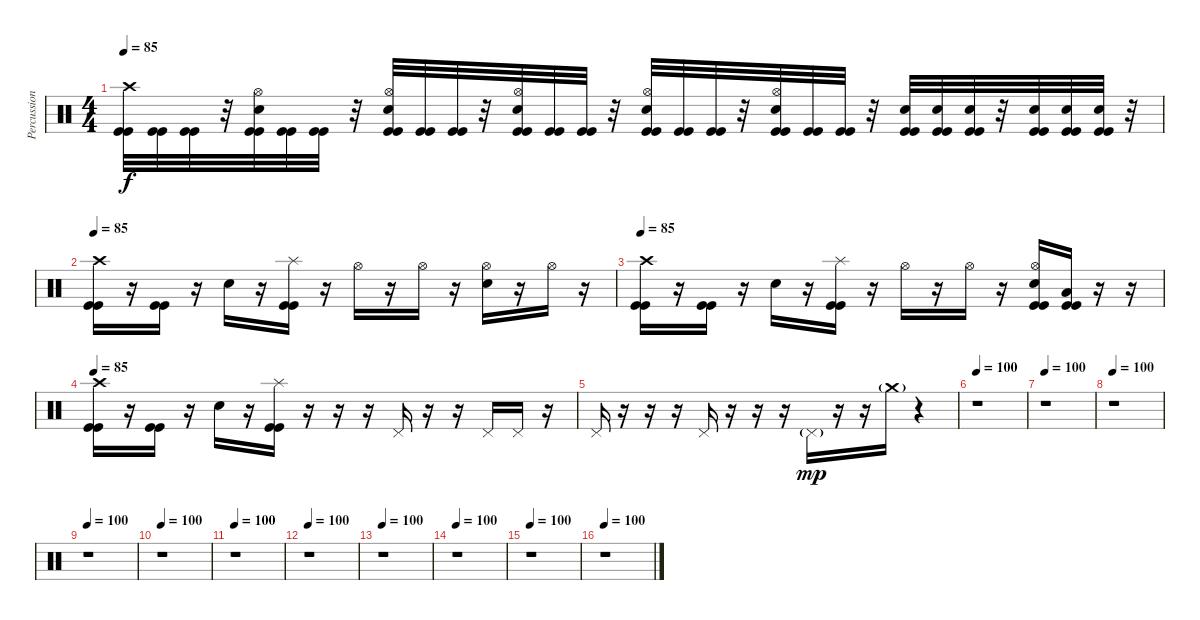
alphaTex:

\track ("Percussions" "Percussion") {instrument percussion}
\staff {score}
\articulation defaults
\ts (4 4)
\tempo 85
\clef neutral
\ks c
("Crash high (hit)" "Kick (hit)" "Kick (hit)").32{dy f} ("Kick (hit)" "Kick (hit)").32 ("Kick (hit)" "Kick (hit)").32 r.32 ("Hi-Hat (open)" "Electric Snare (hit)" "Kick (hit)" "Kick (hit)").32 ("Kick (hit)" "Kick (hit)").32 ("Kick (hit)" "Kick (hit)").32 r.32 ("Hi-Hat (open)" "Electric Snare (hit)" "Kick (hit)" "Kick (hit)").32 ("Kick (hit)" "Kick (hit)").32 ("Kick (hit)" "Kick (hit)").32 r.32 ("Hi-Hat (open)" "Electric Snare (hit)" "Kick (hit)" "Kick (hit)").32 ("Kick (hit)" "Kick (hit)").32 ("Kick (hit)" "Kick (hit)").32 r.32 ("Hi-Hat (open)" "Electric Snare (hit)" "Kick (hit)" "Kick (hit)").32 ("Kick (hit)" "Kick (hit)").32 ("Kick (hit)" "Kick (hit)").32 r.32 ("Hi-Hat (open)" "Electric Snare (hit)" "Kick (hit)" "Kick (hit)").32 ("Kick (hit)" "Kick (hit)").32 ("Kick (hit)" "Kick (hit)").32 r.32 ("Electric Snare (hit)" "Kick (hit)" "Kick (hit)").32 ("Electric Snare (hit)" "Kick (hit)" "Kick (hit)").32 ("Electric Snare (hit)" "Kick (hit)" "Kick (hit)").32 r.32 ("Electric Snare (hit)" "Kick (hit)" "Kick (hit)").32 ("Electric Snare (hit)" "Kick (hit)" "Kick (hit)").32 ("Electric Snare (hit)" "Kick (hit)" "Kick (hit)").32 r.32 |
\tempo 85
("Crash high (hit)" "Kick (hit)" "Kick (hit)").16 r.16 ("Kick (hit)" "Kick (hit)").16 r.16 "Electric Snare (hit)".16 r.16 ("Splash (hit)" "Kick (hit)" "Kick (hit)").16 r.16 "Hi-Hat (open)".16 r.16 "Hi-Hat (open)".16 r.16 ("Hi-Hat (open)" "Electric Snare (hit)").16 r.16 "Hi-Hat (open)".16 r.16 |
\tempo 85
("Crash high (hit)" "Kick (hit)" "Kick (hit)").16 r.16 ("Kick (hit)" "Kick (hit)").16 r.16 "Electric Snare (hit)".16 r.16 ("Splash (hit)" "Kick (hit)" "Kick (hit)").16 r.16 "Hi-Hat (open)".16 r.16 "Hi-Hat (open)".16 r.16 ("Hi-Hat (open)" "Electric Snare (hit)" "Kick (hit)" "Kick (hit)").16 ("Low Floor Tom (hit)" "Kick (hit)" "Kick (hit)").16 r.16 r.16 |
\tempo 85
("Crash high (hit)" "Kick (hit)" "Kick (hit)").16 r.16 ("Kick (hit)" "Kick (hit)").16 r.16 "Electric Snare (hit)".16 r.16 ("Splash (hit)" "Kick (hit)" "Kick (hit)").16 r.16 r.16 r.16 "Pedal Hi-Hat (hit)".16 r.16 r.16 "Pedal Hi-Hat (hit)".16 "Pedal Hi-Hat (hit)".16 r.16 |
"Pedal Hi-Hat (hit)".16 r.16 r.16 r.16 "Pedal Hi-Hat (hit)".16 r.16 r.16 r.16 "Pedal Hi-Hat (hit)"{g}.16{dy mp} r.16 r.16 "Crash medium (hit)"{g}.16 r.4 |
\tempo 100
r.1 |
\tempo 100
r.1 |
\tempo 100
r.1 |
\tempo 100
r.1 |
\tempo 100
r.1 |
\tempo 100
r.1 |
\tempo 100
r.1 |
\tempo 100
r.1 |
\tempo 100
r.1 |
\tempo 100
r.1 |
\tempo 100
r.1
